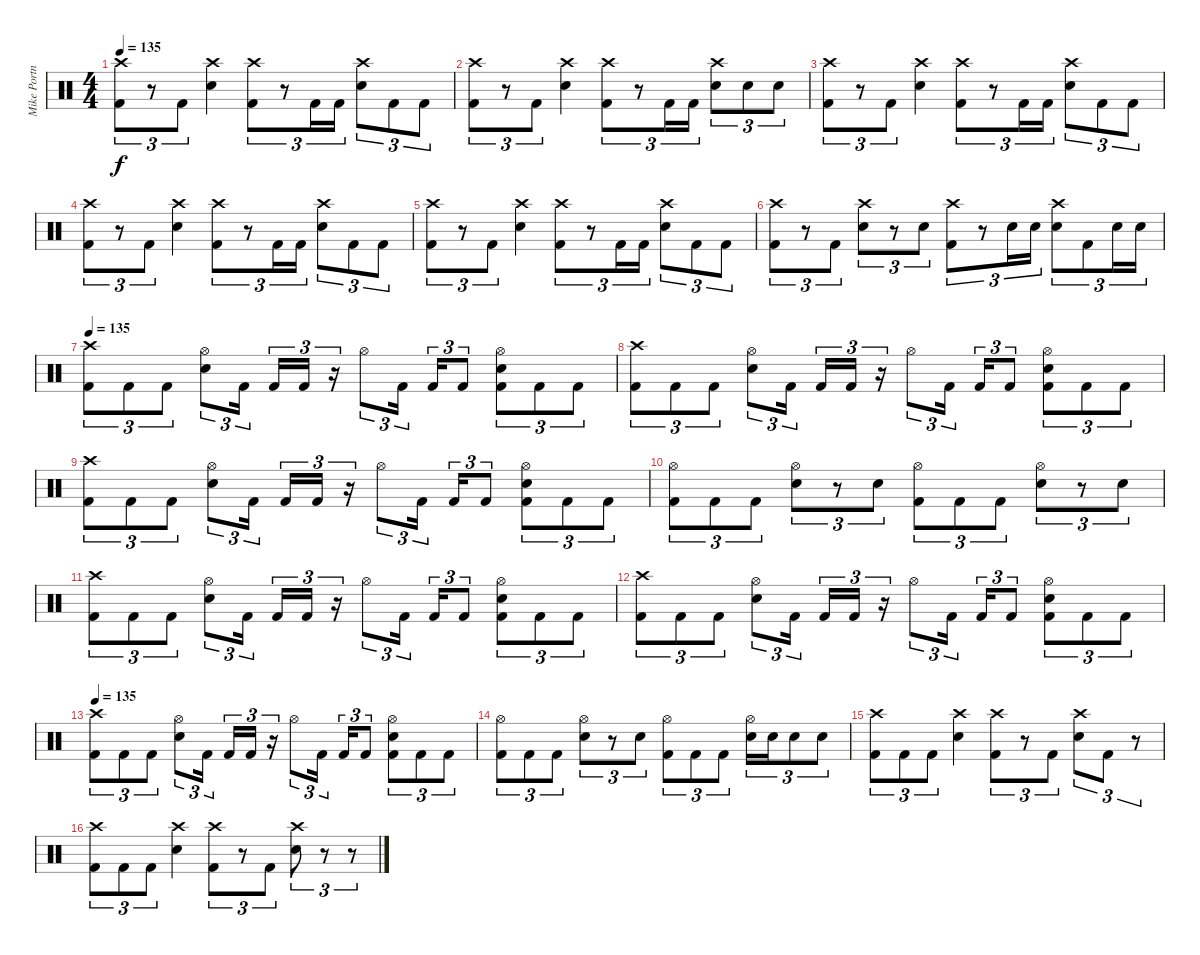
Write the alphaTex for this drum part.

\track ("Mike Portnoy" "Mike Portn") {instrument percussion}
\staff {score}
\articulation defaults
\ts (4 4)
\tempo 135
\clef neutral
\ks c
("Crash high (hit)" "Kick (hit) 2").8{tu (3 2) dy f} r.8{tu (3 2)} "Kick (hit) 2".8{tu (3 2)} ("Crash high (hit)" "Snare (hit) 2").4 ("Crash high (hit)" "Kick (hit) 2").8{tu (3 2)} r.8{tu (3 2)} "Kick (hit) 2".16{tu (3 2)} "Kick (hit) 2".16{tu (3 2)} ("Crash high (hit)" "Snare (hit) 2").8{tu (3 2)} "Kick (hit) 2".8{tu (3 2)} "Kick (hit) 2".8{tu (3 2)} |
("Crash high (hit)" "Kick (hit) 2").8{tu (3 2)} r.8{tu (3 2)} "Kick (hit) 2".8{tu (3 2)} ("Crash high (hit)" "Snare (hit) 2").4 ("Crash high (hit)" "Kick (hit) 2").8{tu (3 2)} r.8{tu (3 2)} "Kick (hit) 2".16{tu (3 2)} "Kick (hit) 2".16{tu (3 2)} ("Crash high (hit)" "Snare (hit) 2").8{tu (3 2)} "Snare (hit) 2".8{tu (3 2)} "Snare (hit) 2".8{tu (3 2)} |
("Crash high (hit)" "Kick (hit) 2").8{tu (3 2)} r.8{tu (3 2)} "Kick (hit) 2".8{tu (3 2)} ("Crash high (hit)" "Snare (hit) 2").4 ("Crash high (hit)" "Kick (hit) 2").8{tu (3 2)} r.8{tu (3 2)} "Kick (hit) 2".16{tu (3 2)} "Kick (hit) 2".16{tu (3 2)} ("Crash high (hit)" "Snare (hit) 2").8{tu (3 2)} "Kick (hit) 2".8{tu (3 2)} "Kick (hit) 2".8{tu (3 2)} |
("Crash high (hit)" "Kick (hit) 2").8{tu (3 2)} r.8{tu (3 2)} "Kick (hit) 2".8{tu (3 2)} ("Crash high (hit)" "Snare (hit) 2").4 ("Crash high (hit)" "Kick (hit) 2").8{tu (3 2)} r.8{tu (3 2)} "Kick (hit) 2".16{tu (3 2)} "Kick (hit) 2".16{tu (3 2)} ("Crash high (hit)" "Snare (hit) 2").8{tu (3 2)} "Kick (hit) 2".8{tu (3 2)} "Kick (hit) 2".8{tu (3 2)} |
("Crash high (hit)" "Kick (hit) 2").8{tu (3 2)} r.8{tu (3 2)} "Kick (hit) 2".8{tu (3 2)} ("Crash high (hit)" "Snare (hit) 2").4 ("Crash high (hit)" "Kick (hit) 2").8{tu (3 2)} r.8{tu (3 2)} "Kick (hit) 2".16{tu (3 2)} "Kick (hit) 2".16{tu (3 2)} ("Crash high (hit)" "Snare (hit) 2").8{tu (3 2)} "Kick (hit) 2".8{tu (3 2)} "Kick (hit) 2".8{tu (3 2)} |
("Crash high (hit)" "Kick (hit) 2").8{tu (3 2)} r.8{tu (3 2)} "Kick (hit) 2".8{tu (3 2)} ("Crash high (hit)" "Snare (hit) 2").8{tu (3 2)} r.8{tu (3 2)} "Snare (hit) 2".8{tu (3 2)} ("Crash high (hit)" "Kick (hit) 2").8{tu (3 2)} r.8{tu (3 2)} "Snare (hit) 2".16{tu (3 2)} "Snare (hit) 2".16{tu (3 2)} ("Crash high (hit)" "Snare (hit) 2").8{tu (3 2)} "Kick (hit) 2".8{tu (3 2)} "Snare (hit) 2".16{tu (3 2)} "Snare (hit) 2".16{tu (3 2)} |
\tempo 135
("Crash high (hit)" "Kick (hit) 2").8{tu (3 2)} "Kick (hit) 2".8{tu (3 2)} "Kick (hit) 2".8{tu (3 2)} ("Hi-Hat (open)" "Snare (hit) 2").8{tu (3 2)} "Kick (hit) 2".16{tu (3 2)} "Kick (hit) 2".16{tu (3 2)} "Kick (hit) 2".16{tu (3 2)} r.16{tu (3 2)} "Hi-Hat (open)".8{tu (3 2)} "Kick (hit) 2".16{tu (3 2)} "Kick (hit) 2".16{tu (3 2)} "Kick (hit) 2".8{tu (3 2)} ("Hi-Hat (open)" "Snare (hit) 2" "Kick (hit) 2").8{tu (3 2)} "Kick (hit) 2".8{tu (3 2)} "Kick (hit) 2".8{tu (3 2)} |
("Crash high (hit)" "Kick (hit) 2").8{tu (3 2)} "Kick (hit) 2".8{tu (3 2)} "Kick (hit) 2".8{tu (3 2)} ("Hi-Hat (open)" "Snare (hit) 2").8{tu (3 2)} "Kick (hit) 2".16{tu (3 2)} "Kick (hit) 2".16{tu (3 2)} "Kick (hit) 2".16{tu (3 2)} r.16{tu (3 2)} "Hi-Hat (open)".8{tu (3 2)} "Kick (hit) 2".16{tu (3 2)} "Kick (hit) 2".16{tu (3 2)} "Kick (hit) 2".8{tu (3 2)} ("Hi-Hat (open)" "Snare (hit) 2" "Kick (hit) 2").8{tu (3 2)} "Kick (hit) 2".8{tu (3 2)} "Kick (hit) 2".8{tu (3 2)} |
("Crash high (hit)" "Kick (hit) 2").8{tu (3 2)} "Kick (hit) 2".8{tu (3 2)} "Kick (hit) 2".8{tu (3 2)} ("Hi-Hat (open)" "Snare (hit) 2").8{tu (3 2)} "Kick (hit) 2".16{tu (3 2)} "Kick (hit) 2".16{tu (3 2)} "Kick (hit) 2".16{tu (3 2)} r.16{tu (3 2)} "Hi-Hat (open)".8{tu (3 2)} "Kick (hit) 2".16{tu (3 2)} "Kick (hit) 2".16{tu (3 2)} "Kick (hit) 2".8{tu (3 2)} ("Hi-Hat (open)" "Snare (hit) 2" "Kick (hit) 2").8{tu (3 2)} "Kick (hit) 2".8{tu (3 2)} "Kick (hit) 2".8{tu (3 2)} |
("Hi-Hat (open)" "Kick (hit) 2").8{tu (3 2)} "Kick (hit) 2".8{tu (3 2)} "Kick (hit) 2".8{tu (3 2)} ("Hi-Hat (open)" "Snare (hit) 2").8{tu (3 2)} r.8{tu (3 2)} "Snare (hit) 2".8{tu (3 2)} ("Hi-Hat (open)" "Kick (hit) 2").8{tu (3 2)} "Kick (hit) 2".8{tu (3 2)} "Kick (hit) 2".8{tu (3 2)} ("Hi-Hat (open)" "Snare (hit) 2").8{tu (3 2)} r.8{tu (3 2)} "Snare (hit) 2".8{tu (3 2)} |
("Crash high (hit)" "Kick (hit) 2").8{tu (3 2)} "Kick (hit) 2".8{tu (3 2)} "Kick (hit) 2".8{tu (3 2)} ("Hi-Hat (open)" "Snare (hit) 2").8{tu (3 2)} "Kick (hit) 2".16{tu (3 2)} "Kick (hit) 2".16{tu (3 2)} "Kick (hit) 2".16{tu (3 2)} r.16{tu (3 2)} "Hi-Hat (open)".8{tu (3 2)} "Kick (hit) 2".16{tu (3 2)} "Kick (hit) 2".16{tu (3 2)} "Kick (hit) 2".8{tu (3 2)} ("Hi-Hat (open)" "Snare (hit) 2" "Kick (hit) 2").8{tu (3 2)} "Kick (hit) 2".8{tu (3 2)} "Kick (hit) 2".8{tu (3 2)} |
("Crash high (hit)" "Kick (hit) 2").8{tu (3 2)} "Kick (hit) 2".8{tu (3 2)} "Kick (hit) 2".8{tu (3 2)} ("Hi-Hat (open)" "Snare (hit) 2").8{tu (3 2)} "Kick (hit) 2".16{tu (3 2)} "Kick (hit) 2".16{tu (3 2)} "Kick (hit) 2".16{tu (3 2)} r.16{tu (3 2)} "Hi-Hat (open)".8{tu (3 2)} "Kick (hit) 2".16{tu (3 2)} "Kick (hit) 2".16{tu (3 2)} "Kick (hit) 2".8{tu (3 2)} ("Hi-Hat (open)" "Snare (hit) 2" "Kick (hit) 2").8{tu (3 2)} "Kick (hit) 2".8{tu (3 2)} "Kick (hit) 2".8{tu (3 2)} |
\tempo 135
("Crash high (hit)" "Kick (hit) 2").8{tu (3 2)} "Kick (hit) 2".8{tu (3 2)} "Kick (hit) 2".8{tu (3 2)} ("Hi-Hat (open)" "Snare (hit) 2").8{tu (3 2)} "Kick (hit) 2".16{tu (3 2)} "Kick (hit) 2".16{tu (3 2)} "Kick (hit) 2".16{tu (3 2)} r.16{tu (3 2)} "Hi-Hat (open)".8{tu (3 2)} "Kick (hit) 2".16{tu (3 2)} "Kick (hit) 2".16{tu (3 2)} "Kick (hit) 2".8{tu (3 2)} ("Hi-Hat (open)" "Snare (hit) 2" "Kick (hit) 2").8{tu (3 2)} "Kick (hit) 2".8{tu (3 2)} "Kick (hit) 2".8{tu (3 2)} |
("Hi-Hat (open)" "Kick (hit) 2").8{tu (3 2)} "Kick (hit) 2".8{tu (3 2)} "Kick (hit) 2".8{tu (3 2)} ("Hi-Hat (open)" "Snare (hit) 2").8{tu (3 2)} r.8{tu (3 2)} "Snare (hit) 2".8{tu (3 2)} ("Hi-Hat (open)" "Kick (hit) 2").8{tu (3 2)} "Kick (hit) 2".8{tu (3 2)} "Kick (hit) 2".8{tu (3 2)} ("Hi-Hat (open)" "Snare (hit) 2").16{tu (3 2)} "Snare (hit) 2".16{tu (3 2)} "Snare (hit) 2".8{tu (3 2)} "Snare (hit) 2".8{tu (3 2)} |
("Crash high (hit)" "Kick (hit) 2").8{tu (3 2)} "Kick (hit) 2".8{tu (3 2)} "Kick (hit) 2".8{tu (3 2)} ("Crash high (hit)" "Snare (hit) 2").4 ("Crash high (hit)" "Kick (hit) 2").8{tu (3 2)} r.8{tu (3 2)} "Kick (hit) 2".8{tu (3 2)} ("Crash high (hit)" "Snare (hit) 2").8{tu (3 2)} "Kick (hit) 2".8{tu (3 2)} r.8{tu (3 2)} |
("Crash high (hit)" "Kick (hit) 2").8{tu (3 2)} "Kick (hit) 2".8{tu (3 2)} "Kick (hit) 2".8{tu (3 2)} ("Crash high (hit)" "Snare (hit) 2").4 ("Crash high (hit)" "Kick (hit) 2").8{tu (3 2)} r.8{tu (3 2)} "Kick (hit) 2".8{tu (3 2)} ("Crash high (hit)" "Snare (hit) 2").8{tu (3 2)} r.8{tu (3 2)} r.8{tu (3 2)}
